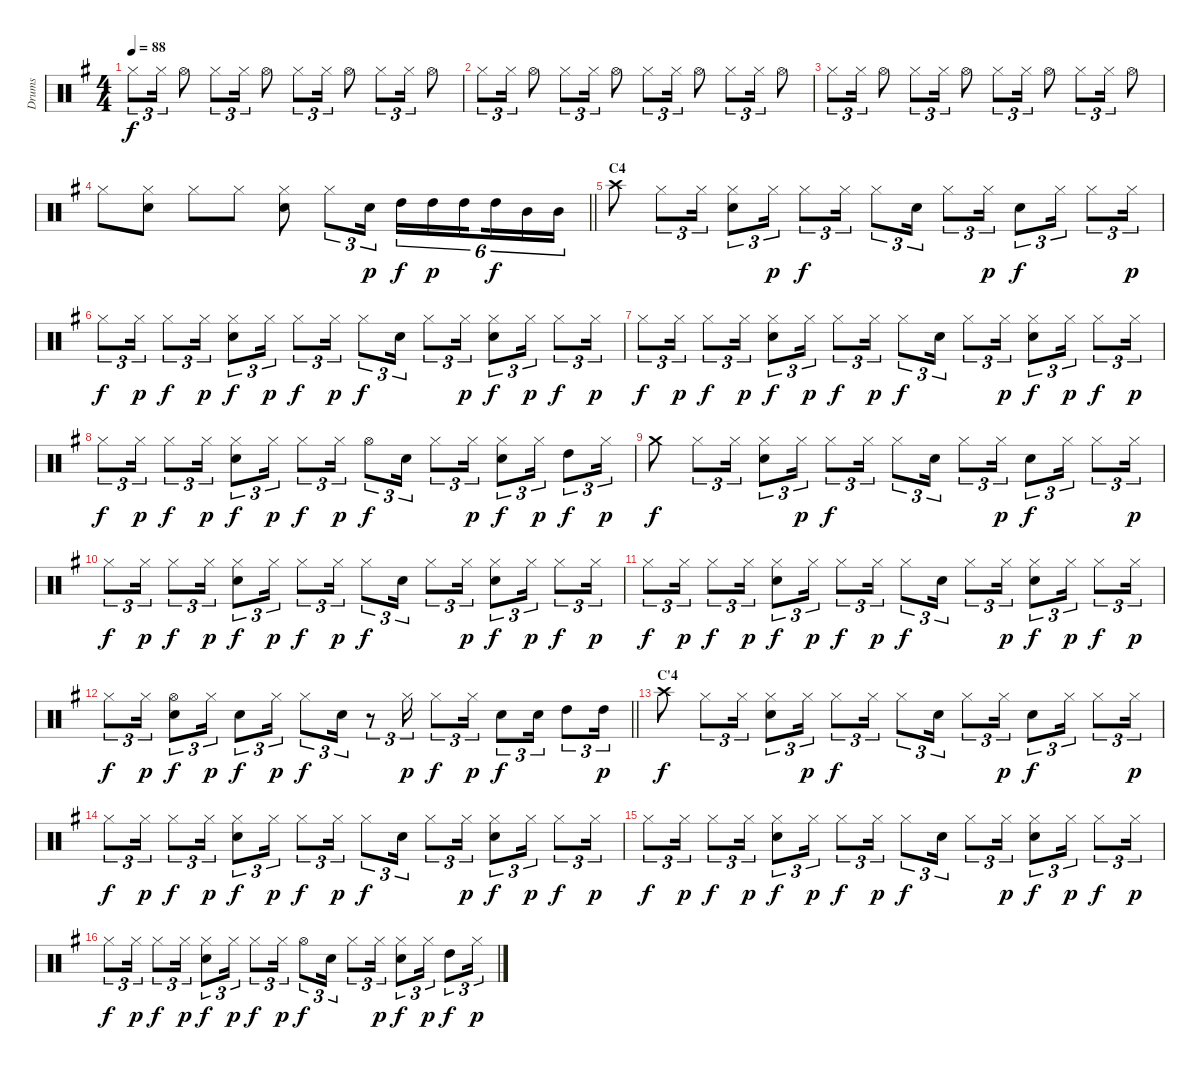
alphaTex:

\track ("Drums" "Drums") {instrument percussion}
\staff {score}
\articulation defaults
\ts (4 4)
\tempo 88
\clef neutral
\ks g "Hi-Hat (closed)".8{tu (3 2) dy f} "Hi-Hat (closed)".16{tu (3 2)} "Hi-Hat (open)".8 "Hi-Hat (closed)".8{tu (3 2)} "Hi-Hat (closed)".16{tu (3 2)} "Hi-Hat (open)".8 "Hi-Hat (closed)".8{tu (3 2)} "Hi-Hat (closed)".16{tu (3 2)} "Hi-Hat (open)".8 "Hi-Hat (closed)".8{tu (3 2)} "Hi-Hat (closed)".16{tu (3 2)} "Hi-Hat (open)".8
|
"Hi-Hat (closed)".8{tu (3 2)} "Hi-Hat (closed)".16{tu (3 2)} "Hi-Hat (open)".8 "Hi-Hat (closed)".8{tu (3 2)} "Hi-Hat (closed)".16{tu (3 2)} "Hi-Hat (open)".8 "Hi-Hat (closed)".8{tu (3 2)} "Hi-Hat (closed)".16{tu (3 2)} "Hi-Hat (open)".8 "Hi-Hat (closed)".8{tu (3 2)} "Hi-Hat (closed)".16{tu (3 2)} "Hi-Hat (open)".8 |
"Hi-Hat (closed)".8{tu (3 2)} "Hi-Hat (closed)".16{tu (3 2)} "Hi-Hat (open)".8 "Hi-Hat (closed)".8{tu (3 2)} "Hi-Hat (closed)".16{tu (3 2)} "Hi-Hat (open)".8 "Hi-Hat (closed)".8{tu (3 2)} "Hi-Hat (closed)".16{tu (3 2)} "Hi-Hat (open)".8 "Hi-Hat (closed)".8{tu (3 2)} "Hi-Hat (closed)".16{tu (3 2)} "Hi-Hat (open)".8 |
\barLineRight lightlight "Hi-Hat (closed)".8
("Hi-Hat (closed)" "Snare (hit) 2").8 "Hi-Hat (closed)".8 "Hi-Hat (closed)".8 ("Hi-Hat (closed)" "Snare (hit) 2").8 "Hi-Hat (closed)".8{tu (3 2)} "Snare (hit) 2".16{tu (3 2) dy p} "High Tom (hit)".16{tu (6 4) dy f} "High Tom (hit)".16{tu (6 4) dy p} "High Tom (hit)".16{tu (6 4) beam splitsecondary} "High Tom (hit)".16{tu (6 4) dy f} "Mid Tom (hit)".16{tu (6 4)} "Mid Tom (hit)".16{tu (6 4)} |
\section ("" "C4")
"Crash high (hit)".8 "Hi-Hat (closed)".8{tu (3 2)} "Hi-Hat (closed)".16{tu (3 2)} ("Hi-Hat (closed)" "Snare (hit) 2").8{tu (3 2)} "Hi-Hat (closed)".16{tu (3 2) dy p} "Hi-Hat (closed)".8{tu (3 2) dy f} "Hi-Hat (closed)".16{tu (3 2)} "Hi-Hat (closed)".8{tu (3 2)} "Snare (hit) 2".16{tu (3 2)} "Hi-Hat (closed)".8{tu (3 2)} "Hi-Hat (closed)".16{tu (3 2) dy p} "Snare (hit) 2".8{tu (3 2) dy f} "Hi-Hat (closed)".16{tu (3 2)} "Hi-Hat (closed)".8{tu (3 2)} "Hi-Hat (closed)".16{tu (3 2) dy p} |
"Hi-Hat (closed)".8{tu (3 2) dy f} "Hi-Hat (closed)".16{tu (3 2) dy p} "Hi-Hat (closed)".8{tu (3 2) dy f} "Hi-Hat (closed)".16{tu (3 2) dy p} ("Hi-Hat (closed)" "Snare (hit) 2").8{tu (3 2) dy f} "Hi-Hat (closed)".16{tu (3 2) dy p} "Hi-Hat (closed)".8{tu (3 2) dy f} "Hi-Hat (closed)".16{tu (3 2) dy p} "Hi-Hat (closed)".8{tu (3 2) dy f} "Snare (hit) 2".16{tu (3 2)} "Hi-Hat (closed)".8{tu (3 2)} "Hi-Hat (closed)".16{tu (3 2) dy p} ("Hi-Hat (closed)" "Snare (hit) 2").8{tu (3 2) dy f} "Hi-Hat (closed)".16{tu (3 2) dy p} "Hi-Hat (closed)".8{tu (3 2) dy f} "Hi-Hat (closed)".16{tu (3 2) dy p} |
"Hi-Hat (closed)".8{tu (3 2) dy f} "Hi-Hat (closed)".16{tu (3 2) dy p} "Hi-Hat (closed)".8{tu (3 2) dy f} "Hi-Hat (closed)".16{tu (3 2) dy p} ("Hi-Hat (closed)" "Snare (hit) 2").8{tu (3 2) dy f} "Hi-Hat (closed)".16{tu (3 2) dy p} "Hi-Hat (closed)".8{tu (3 2) dy f} "Hi-Hat (closed)".16{tu (3 2) dy p} "Hi-Hat (closed)".8{tu (3 2) dy f} "Snare (hit) 2".16{tu (3 2)} "Hi-Hat (closed)".8{tu (3 2)} "Hi-Hat (closed)".16{tu (3 2) dy p} ("Hi-Hat (closed)" "Snare (hit) 2").8{tu (3 2) dy f} "Hi-Hat (closed)".16{tu (3 2) dy p} "Hi-Hat (closed)".8{tu (3 2) dy f} "Hi-Hat (closed)".16{tu (3 2) dy p} |
"Hi-Hat (closed)".8{tu (3 2) dy f} "Hi-Hat (closed)".16{tu (3 2) dy p} "Hi-Hat (closed)".8{tu (3 2) dy f} "Hi-Hat (closed)".16{tu (3 2) dy p} ("Hi-Hat (closed)" "Snare (hit) 2").8{tu (3 2) dy f} "Hi-Hat (closed)".16{tu (3 2) dy p} "Hi-Hat (closed)".8{tu (3 2) dy f} "Hi-Hat (closed)".16{tu (3 2) dy p} "Hi-Hat (open)".8{tu (3 2) dy f} "Snare (hit) 2".16{tu (3 2)} "Hi-Hat (closed)".8{tu (3 2)} "Hi-Hat (closed)".16{tu (3 2) dy p} ("Hi-Hat (closed)" "Snare (hit) 2").8{tu (3 2) dy f} "Hi-Hat (closed)".16{tu (3 2) dy p} "High Tom (hit)".8{tu (3 2) dy f} "Hi-Hat (closed)".16{tu (3 2) dy p} |
"Crash medium (hit)".8{dy f} "Hi-Hat (closed)".8{tu (3 2)} "Hi-Hat (closed)".16{tu (3 2)} ("Hi-Hat (closed)" "Snare (hit) 2").8{tu (3 2)} "Hi-Hat (closed)".16{tu (3 2) dy p} "Hi-Hat (closed)".8{tu (3 2) dy f} "Hi-Hat (closed)".16{tu (3 2)} "Hi-Hat (closed)".8{tu (3 2)} "Snare (hit) 2".16{tu (3 2)} "Hi-Hat (closed)".8{tu (3 2)} "Hi-Hat (closed)".16{tu (3 2) dy p} "Snare (hit) 2".8{tu (3 2) dy f} "Hi-Hat (closed)".16{tu (3 2)} "Hi-Hat (closed)".8{tu (3 2)} "Hi-Hat (closed)".16{tu (3 2) dy p} |
"Hi-Hat (closed)".8{tu (3 2) dy f} "Hi-Hat (closed)".16{tu (3 2) dy p} "Hi-Hat (closed)".8{tu (3 2) dy f} "Hi-Hat (closed)".16{tu (3 2) dy p} ("Hi-Hat (closed)" "Snare (hit) 2").8{tu (3 2) dy f} "Hi-Hat (closed)".16{tu (3 2) dy p} "Hi-Hat (closed)".8{tu (3 2) dy f} "Hi-Hat (closed)".16{tu (3 2) dy p} "Hi-Hat (closed)".8{tu (3 2) dy f} "Snare (hit) 2".16{tu (3 2)} "Hi-Hat (closed)".8{tu (3 2)} "Hi-Hat (closed)".16{tu (3 2) dy p} ("Hi-Hat (closed)" "Snare (hit) 2").8{tu (3 2) dy f} "Hi-Hat (closed)".16{tu (3 2) dy p} "Hi-Hat (closed)".8{tu (3 2) dy f} "Hi-Hat (closed)".16{tu (3 2) dy p} |
"Hi-Hat (closed)".8{tu (3 2) dy f} "Hi-Hat (closed)".16{tu (3 2) dy p} "Hi-Hat (closed)".8{tu (3 2) dy f} "Hi-Hat (closed)".16{tu (3 2) dy p} ("Hi-Hat (closed)" "Snare (hit) 2").8{tu (3 2) dy f} "Hi-Hat (closed)".16{tu (3 2) dy p} "Hi-Hat (closed)".8{tu (3 2) dy f} "Hi-Hat (closed)".16{tu (3 2) dy p} "Hi-Hat (closed)".8{tu (3 2) dy f} "Snare (hit) 2".16{tu (3 2)} "Hi-Hat (closed)".8{tu (3 2)} "Hi-Hat (closed)".16{tu (3 2) dy p} ("Hi-Hat (closed)" "Snare (hit) 2").8{tu (3 2) dy f} "Hi-Hat (closed)".16{tu (3 2) dy p} "Hi-Hat (closed)".8{tu (3 2) dy f} "Hi-Hat (closed)".16{tu (3 2) dy p} |
\barLineRight lightlight "Hi-Hat (closed)".8{tu (3 2) dy f} "Hi-Hat (closed)".16{tu (3 2) dy p}
("Hi-Hat (open)" "Snare (hit) 2").8{tu (3 2) dy f} "Hi-Hat (closed)".16{tu (3 2) dy p} "Snare (hit) 2".8{tu (3 2) dy f} "Hi-Hat (closed)".16{tu (3 2) dy p} "Hi-Hat (closed)".8{tu (3 2) dy f} "Snare (hit) 2".16{tu (3 2)} r.8{tu (3 2)} "Hi-Hat (closed)".16{tu (3 2) dy p} "Hi-Hat (closed)".8{tu (3 2) dy f} "Hi-Hat (closed)".16{tu (3 2) dy p} "Snare (hit) 2".8{tu (3 2) dy f} "Snare (hit) 2".16{tu (3 2)} "High Tom (hit)".8{tu (3 2)} "High Tom (hit)".16{tu (3 2) dy p} |
\section ("" "C'4")
"Crash high (hit)".8{dy f} "Hi-Hat (closed)".8{tu (3 2)} "Hi-Hat (closed)".16{tu (3 2)} ("Hi-Hat (closed)" "Snare (hit) 2").8{tu (3 2)} "Hi-Hat (closed)".16{tu (3 2) dy p} "Hi-Hat (closed)".8{tu (3 2) dy f} "Hi-Hat (closed)".16{tu (3 2)} "Hi-Hat (closed)".8{tu (3 2)} "Snare (hit) 2".16{tu (3 2)} "Hi-Hat (closed)".8{tu (3 2)} "Hi-Hat (closed)".16{tu (3 2) dy p} "Snare (hit) 2".8{tu (3 2) dy f} "Hi-Hat (closed)".16{tu (3 2)} "Hi-Hat (closed)".8{tu (3 2)} "Hi-Hat (closed)".16{tu (3 2) dy p} |
"Hi-Hat (closed)".8{tu (3 2) dy f} "Hi-Hat (closed)".16{tu (3 2) dy p} "Hi-Hat (closed)".8{tu (3 2) dy f} "Hi-Hat (closed)".16{tu (3 2) dy p} ("Hi-Hat (closed)" "Snare (hit) 2").8{tu (3 2) dy f} "Hi-Hat (closed)".16{tu (3 2) dy p} "Hi-Hat (closed)".8{tu (3 2) dy f} "Hi-Hat (closed)".16{tu (3 2) dy p} "Hi-Hat (closed)".8{tu (3 2) dy f} "Snare (hit) 2".16{tu (3 2)} "Hi-Hat (closed)".8{tu (3 2)} "Hi-Hat (closed)".16{tu (3 2) dy p} ("Hi-Hat (closed)" "Snare (hit) 2").8{tu (3 2) dy f} "Hi-Hat (closed)".16{tu (3 2) dy p} "Hi-Hat (closed)".8{tu (3 2) dy f} "Hi-Hat (closed)".16{tu (3 2) dy p} |
"Hi-Hat (closed)".8{tu (3 2) dy f} "Hi-Hat (closed)".16{tu (3 2) dy p} "Hi-Hat (closed)".8{tu (3 2) dy f} "Hi-Hat (closed)".16{tu (3 2) dy p} ("Hi-Hat (closed)" "Snare (hit) 2").8{tu (3 2) dy f} "Hi-Hat (closed)".16{tu (3 2) dy p} "Hi-Hat (closed)".8{tu (3 2) dy f} "Hi-Hat (closed)".16{tu (3 2) dy p} "Hi-Hat (closed)".8{tu (3 2) dy f} "Snare (hit) 2".16{tu (3 2)} "Hi-Hat (closed)".8{tu (3 2)} "Hi-Hat (closed)".16{tu (3 2) dy p} ("Hi-Hat (closed)" "Snare (hit) 2").8{tu (3 2) dy f} "Hi-Hat (closed)".16{tu (3 2) dy p} "Hi-Hat (closed)".8{tu (3 2) dy f} "Hi-Hat (closed)".16{tu (3 2) dy p} |
"Hi-Hat (closed)".8{tu (3 2) dy f} "Hi-Hat (closed)".16{tu (3 2) dy p} "Hi-Hat (closed)".8{tu (3 2) dy f} "Hi-Hat (closed)".16{tu (3 2) dy p} ("Hi-Hat (closed)" "Snare (hit) 2").8{tu (3 2) dy f} "Hi-Hat (closed)".16{tu (3 2) dy p} "Hi-Hat (closed)".8{tu (3 2) dy f} "Hi-Hat (closed)".16{tu (3 2) dy p} "Hi-Hat (open)".8{tu (3 2) dy f} "Snare (hit) 2".16{tu (3 2)} "Hi-Hat (closed)".8{tu (3 2)} "Hi-Hat (closed)".16{tu (3 2) dy p} ("Hi-Hat (closed)" "Snare (hit) 2").8{tu (3 2) dy f} "Hi-Hat (closed)".16{tu (3 2) dy p} "High Tom (hit)".8{tu (3 2) dy f} "Hi-Hat (closed)".16{tu (3 2) dy p}
